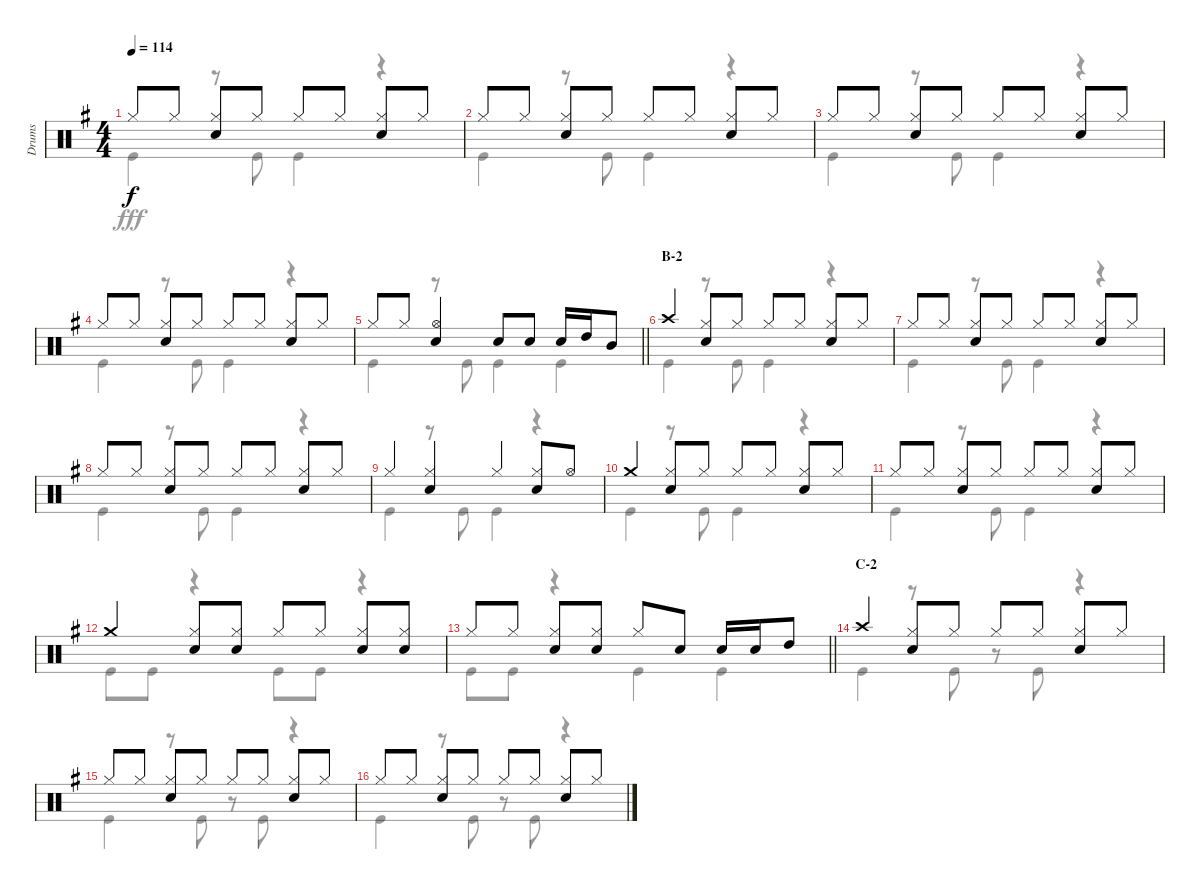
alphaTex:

\track ("Drums" "Drums") {instrument percussion}
\staff {score}
\articulation defaults
\voice
\ts (4 4)
\tempo 114
\clef neutral
\ks g "Hi-Hat (closed)".8{dy f} "Hi-Hat (closed)".8
("Hi-Hat (closed)" "Snare (hit) 2").8 "Hi-Hat (closed)".8 "Hi-Hat (closed)".8 "Hi-Hat (closed)".8 ("Hi-Hat (closed)" "Snare (hit) 2").8 "Hi-Hat (closed)".8 |
"Hi-Hat (closed)".8 "Hi-Hat (closed)".8 ("Hi-Hat (closed)" "Snare (hit) 2").8 "Hi-Hat (closed)".8 "Hi-Hat (closed)".8 "Hi-Hat (closed)".8 ("Hi-Hat (closed)" "Snare (hit) 2").8 "Hi-Hat (closed)".8 |
"Hi-Hat (closed)".8 "Hi-Hat (closed)".8 ("Hi-Hat (closed)" "Snare (hit) 2").8 "Hi-Hat (closed)".8 "Hi-Hat (closed)".8 "Hi-Hat (closed)".8 ("Hi-Hat (closed)" "Snare (hit) 2").8 "Hi-Hat (closed)".8 |
"Hi-Hat (closed)".8 "Hi-Hat (closed)".8 ("Hi-Hat (closed)" "Snare (hit) 2").8 "Hi-Hat (closed)".8 "Hi-Hat (closed)".8 "Hi-Hat (closed)".8 ("Hi-Hat (closed)" "Snare (hit) 2").8 "Hi-Hat (closed)".8 |
\barLineRight lightlight "Hi-Hat (closed)".8 "Hi-Hat (closed)".8
("Hi-Hat (open)" "Snare (hit) 2").4 "Snare (hit) 2".8 "Snare (hit) 2".8 "Snare (hit) 2".16 "High Tom (hit)".16 "Mid Tom (hit)".8 |
\section ("" "B-2")
"Crash high (hit)".4 ("Hi-Hat (closed)" "Snare (hit) 2").8 "Hi-Hat (closed)".8 "Hi-Hat (closed)".8 "Hi-Hat (closed)".8 ("Hi-Hat (closed)" "Snare (hit) 2").8 "Hi-Hat (closed)".8 |
"Hi-Hat (closed)".8 "Hi-Hat (closed)".8 ("Hi-Hat (closed)" "Snare (hit) 2").8 "Hi-Hat (closed)".8 "Hi-Hat (closed)".8 "Hi-Hat (closed)".8 ("Hi-Hat (closed)" "Snare (hit) 2").8 "Hi-Hat (closed)".8 |
"Hi-Hat (closed)".8 "Hi-Hat (closed)".8 ("Hi-Hat (closed)" "Snare (hit) 2").8 "Hi-Hat (closed)".8 "Hi-Hat (closed)".8 "Hi-Hat (closed)".8 ("Hi-Hat (closed)" "Snare (hit) 2").8 "Hi-Hat (closed)".8 |
"Hi-Hat (closed)".4 ("Hi-Hat (closed)" "Snare (hit) 2").4 "Hi-Hat (closed)".4 ("Hi-Hat (closed)" "Snare (hit) 2").8 "Hi-Hat (open)".8 |
"Crash medium (hit)".4 ("Hi-Hat (closed)" "Snare (hit) 2").8 "Hi-Hat (closed)".8 "Hi-Hat (closed)".8 "Hi-Hat (closed)".8 ("Hi-Hat (closed)" "Snare (hit) 2").8 "Hi-Hat (closed)".8 |
"Hi-Hat (closed)".8 "Hi-Hat (closed)".8 ("Hi-Hat (closed)" "Snare (hit) 2").8 "Hi-Hat (closed)".8 "Hi-Hat (closed)".8 "Hi-Hat (closed)".8 ("Hi-Hat (closed)" "Snare (hit) 2").8 "Hi-Hat (closed)".8 |
"Crash medium (hit)".4 ("Hi-Hat (closed)" "Snare (hit) 2").8 ("Hi-Hat (closed)" "Snare (hit) 2").8 "Hi-Hat (closed)".8 "Hi-Hat (closed)".8 ("Hi-Hat (closed)" "Snare (hit) 2").8 ("Hi-Hat (closed)" "Snare (hit) 2").8 |
\barLineRight lightlight "Hi-Hat (closed)".8 "Hi-Hat (closed)".8
("Hi-Hat (closed)" "Snare (hit) 2").8 ("Hi-Hat (closed)" "Snare (hit) 2").8 "Hi-Hat (closed)".8 "Snare (hit) 2".8 "Snare (hit) 2".16 "Snare (hit) 2".16 "High Tom (hit)".8 |
\section ("" "C-2")
"Crash high (hit)".4 ("Hi-Hat (closed)" "Snare (hit) 2").8 "Hi-Hat (closed)".8 "Hi-Hat (closed)".8 "Hi-Hat (closed)".8 ("Hi-Hat (closed)" "Snare (hit) 2").8 "Hi-Hat (closed)".8 |
"Hi-Hat (closed)".8 "Hi-Hat (closed)".8 ("Hi-Hat (closed)" "Snare (hit) 2").8 "Hi-Hat (closed)".8 "Hi-Hat (closed)".8 "Hi-Hat (closed)".8 ("Hi-Hat (closed)" "Snare (hit) 2").8 "Hi-Hat (closed)".8 |
"Hi-Hat (closed)".8 "Hi-Hat (closed)".8 ("Hi-Hat (closed)" "Snare (hit) 2").8 "Hi-Hat (closed)".8 "Hi-Hat (closed)".8 "Hi-Hat (closed)".8 ("Hi-Hat (closed)" "Snare (hit) 2").8 "Hi-Hat (closed)".8
\voice
\clef neutral
\ottava regular
\simile none
\ks g "Kick (hit)".4{dy fff}
r.8 "Kick (hit)".8 "Kick (hit)".4 r.4 |
"Kick (hit)".4 r.8 "Kick (hit)".8 "Kick (hit)".4 r.4 |
"Kick (hit)".4 r.8 "Kick (hit)".8 "Kick (hit)".4 r.4 |
"Kick (hit)".4 r.8 "Kick (hit)".8 "Kick (hit)".4 r.4 |
\barLineRight lightlight "Kick (hit)".4
r.8 "Kick (hit)".8 "Kick (hit)".4 "Kick (hit)".4 |
"Kick (hit)".4 r.8 "Kick (hit)".8 "Kick (hit)".4 r.4 |
"Kick (hit)".4 r.8 "Kick (hit)".8 "Kick (hit)".4 r.4 |
"Kick (hit)".4 r.8 "Kick (hit)".8 "Kick (hit)".4 r.4 |
"Kick (hit)".4 r.8 "Kick (hit)".8 "Kick (hit)".4 r.4 |
"Kick (hit)".4 r.8 "Kick (hit)".8 "Kick (hit)".4 r.4 |
"Kick (hit)".4 r.8 "Kick (hit)".8 "Kick (hit)".4 r.4 |
"Kick (hit)".8 "Kick (hit)".8 r.4 "Kick (hit)".8 "Kick (hit)".8 r.4 |
\barLineRight lightlight "Kick (hit)".8 "Kick (hit)".8
r.4 "Kick (hit)".4 "Kick (hit)".4 |
"Kick (hit)".4 r.8 "Kick (hit)".8 r.8 "Kick (hit)".8 r.4 |
"Kick (hit)".4 r.8 "Kick (hit)".8 r.8 "Kick (hit)".8 r.4 |
"Kick (hit)".4 r.8 "Kick (hit)".8 r.8 "Kick (hit)".8 r.4
